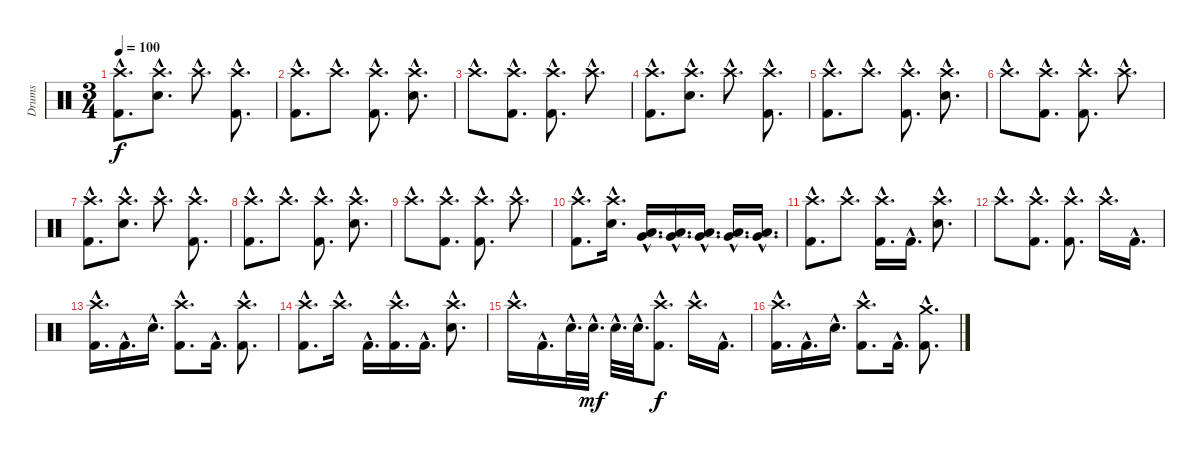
\track ("Drums" "Drums") {instrument percussion}
\staff {score}
\articulation defaults
\ts (3 4)
\tempo 100
\clef neutral
\ks c
("Crash high (hit)"{hac} "Kick (hit) 2"{hac}).8{d dy f} ("Crash high (hit)"{hac} "Electric Snare (hit)"{hac}).8{d} "Crash high (hit)"{hac}.8{d} ("Crash high (hit)"{hac} "Kick (hit) 2"{hac}).8{d} |
("Crash high (hit)"{hac} "Kick (hit) 2"{hac}).8{d} "Crash high (hit)"{hac}.8{d} ("Crash high (hit)"{hac} "Kick (hit) 2"{hac}).8{d} ("Crash high (hit)"{hac} "Electric Snare (hit)"{hac}).8{d} |
"Crash high (hit)"{hac}.8{d} ("Crash high (hit)"{hac} "Kick (hit) 2"{hac}).8{d} ("Crash high (hit)"{hac} "Kick (hit) 2"{hac}).8{d} "Crash high (hit)"{hac}.8{d} |
("Crash high (hit)"{hac} "Kick (hit) 2"{hac}).8{d} ("Crash high (hit)"{hac} "Electric Snare (hit)"{hac}).8{d} "Crash high (hit)"{hac}.8{d} ("Crash high (hit)"{hac} "Kick (hit) 2"{hac}).8{d} |
("Crash high (hit)"{hac} "Kick (hit) 2"{hac}).8{d} "Crash high (hit)"{hac}.8{d} ("Crash high (hit)"{hac} "Kick (hit) 2"{hac}).8{d} ("Crash high (hit)"{hac} "Electric Snare (hit)"{hac}).8{d} |
"Crash high (hit)"{hac}.8{d} ("Crash high (hit)"{hac} "Kick (hit) 2"{hac}).8{d} ("Crash high (hit)"{hac} "Kick (hit) 2"{hac}).8{d} "Crash high (hit)"{hac}.8{d} |
("Crash high (hit)"{hac} "Kick (hit) 2"{hac}).8{d} ("Crash high (hit)"{hac} "Electric Snare (hit)"{hac}).8{d} "Crash high (hit)"{hac}.8{d} ("Crash high (hit)"{hac} "Kick (hit) 2"{hac}).8{d} |
("Crash high (hit)"{hac} "Kick (hit) 2"{hac}).8{d} "Crash high (hit)"{hac}.8{d} ("Crash high (hit)"{hac} "Kick (hit) 2"{hac}).8{d} ("Crash high (hit)"{hac} "Electric Snare (hit)"{hac}).8{d} |
"Crash high (hit)"{hac}.8{d} ("Crash high (hit)"{hac} "Kick (hit) 2"{hac}).8{d} ("Crash high (hit)"{hac} "Kick (hit) 2"{hac}).8{d} "Crash high (hit)"{hac}.8{d} |
("Crash high (hit)"{hac} "Kick (hit) 2"{hac}).8{d} ("Crash high (hit)"{hac} "Electric Snare (hit)"{hac}).16{d} ("Low Floor Tom (hit)"{hac} "Very Low Tom (hit)"{hac}).16{d} ("Low Floor Tom (hit)"{hac} "Very Low Tom (hit)"{hac}).16{d} ("Low Floor Tom (hit)"{hac} "Very Low Tom (hit)"{hac}).16{d} ("Low Floor Tom (hit)"{hac} "Very Low Tom (hit)"{hac}).16{d} ("Low Floor Tom (hit)"{hac} "Very Low Tom (hit)"{hac}).16{d} |
("Crash high (hit)"{hac} "Kick (hit) 2"{hac}).8{d} "Crash high (hit)"{hac}.8{d} ("Crash high (hit)"{hac} "Kick (hit) 2"{hac}).16{d} "Kick (hit) 2"{hac}.16{d} ("Crash high (hit)"{hac} "Electric Snare (hit)"{hac}).8{d} |
"Crash high (hit)"{hac}.8{d} ("Crash high (hit)"{hac} "Kick (hit) 2"{hac}).8{d} ("Crash high (hit)"{hac} "Kick (hit) 2"{hac}).8{d} "Crash high (hit)"{hac}.16{d} "Kick (hit) 2"{hac}.16{d} |
("Crash high (hit)"{hac} "Kick (hit) 2"{hac}).16{d} "Kick (hit) 2"{hac}.16{d} "Electric Snare (hit)"{hac}.16{d} ("Crash high (hit)"{hac} "Kick (hit) 2"{hac}).8{d} "Kick (hit) 2"{hac}.16{d} ("Crash high (hit)"{hac} "Kick (hit) 2"{hac}).8{d} |
("Crash high (hit)"{hac} "Kick (hit) 2"{hac}).8{d} "Crash high (hit)"{hac}.16{d} "Kick (hit) 2"{hac}.16{d} ("Crash high (hit)"{hac} "Kick (hit) 2"{hac}).16{d} "Kick (hit) 2"{hac}.16{d} ("Crash high (hit)"{hac} "Electric Snare (hit)"{hac}).8{d} |
"Crash high (hit)"{hac}.16{d} "Kick (hit) 2"{hac}.16{d} "Electric Snare (hit)"{hac}.32{d} "Electric Snare (hit)"{hac}.32{d dy mf} "Electric Snare (hit)"{hac}.32{d} "Electric Snare (hit)"{hac}.32{d} ("Crash high (hit)"{hac} "Kick (hit) 2"{hac}).8{d dy f} "Crash high (hit)"{hac}.16{d} "Kick (hit) 2"{hac}.16{d} |
("Crash high (hit)"{hac} "Kick (hit) 2"{hac}).16{d} "Kick (hit) 2"{hac}.16{d} "Electric Snare (hit)"{hac}.16{d} ("Crash high (hit)"{hac} "Kick (hit) 2"{hac}).8{d} "Kick (hit) 2"{hac}.16{d} ("Crash medium (hit)"{hac} "Kick (hit) 2"{hac}).8{d}
